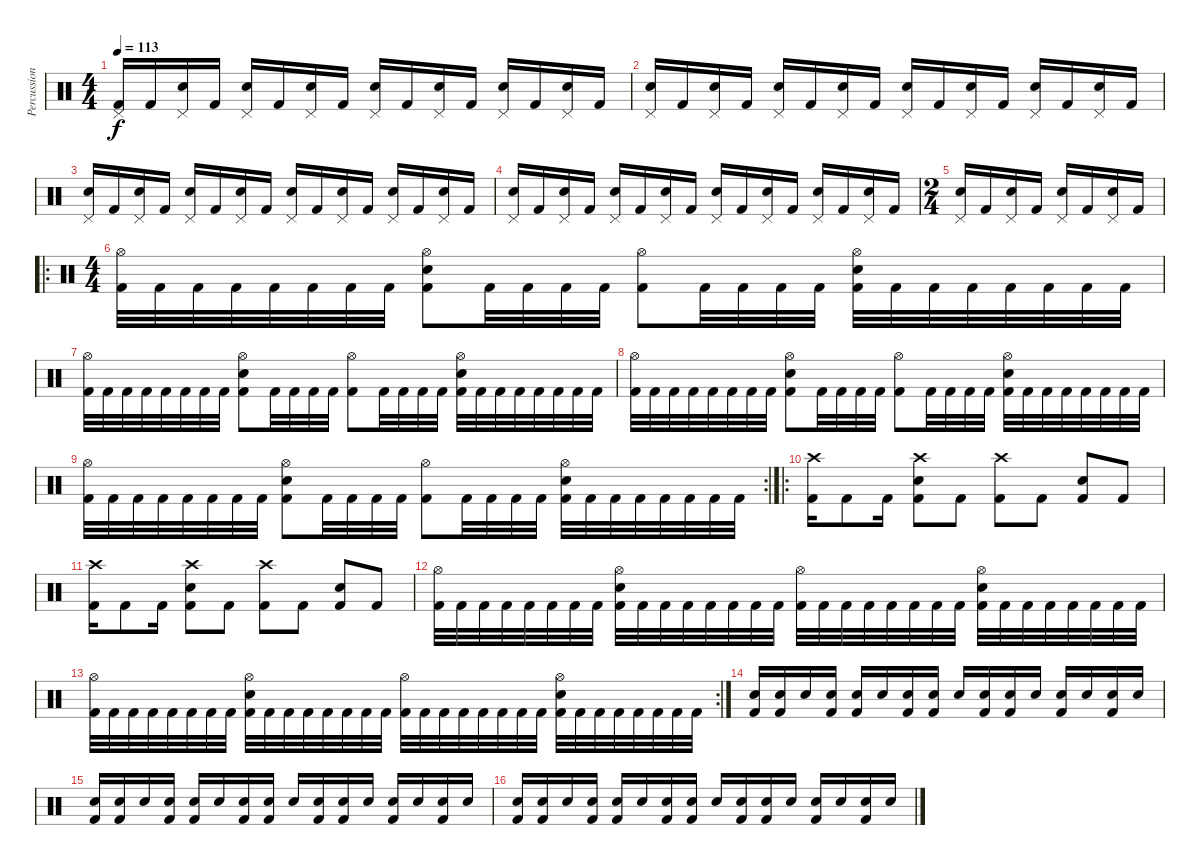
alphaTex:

\track ("Percussion" "Percussion") {instrument percussion}
\staff {score}
\articulation defaults
\ts (4 4)
\tempo 113
\clef neutral
\ks c
("Pedal Hi-Hat (hit)" "Kick (hit) 2").16{dy f} "Kick (hit) 2".16 ("Pedal Hi-Hat (hit)" "Electric Snare (hit)").16 "Kick (hit) 2".16 ("Pedal Hi-Hat (hit)" "Electric Snare (hit)").16 "Kick (hit) 2".16 ("Pedal Hi-Hat (hit)" "Electric Snare (hit)").16 "Kick (hit) 2".16 ("Pedal Hi-Hat (hit)" "Electric Snare (hit)").16 "Kick (hit) 2".16 ("Pedal Hi-Hat (hit)" "Electric Snare (hit)").16 "Kick (hit) 2".16 ("Pedal Hi-Hat (hit)" "Electric Snare (hit)").16 "Kick (hit) 2".16 ("Pedal Hi-Hat (hit)" "Electric Snare (hit)").16 "Kick (hit) 2".16 |
("Pedal Hi-Hat (hit)" "Electric Snare (hit)").16 "Kick (hit) 2".16 ("Pedal Hi-Hat (hit)" "Electric Snare (hit)").16 "Kick (hit) 2".16 ("Pedal Hi-Hat (hit)" "Electric Snare (hit)").16 "Kick (hit) 2".16 ("Pedal Hi-Hat (hit)" "Electric Snare (hit)").16 "Kick (hit) 2".16 ("Pedal Hi-Hat (hit)" "Electric Snare (hit)").16 "Kick (hit) 2".16 ("Pedal Hi-Hat (hit)" "Electric Snare (hit)").16 "Kick (hit) 2".16 ("Pedal Hi-Hat (hit)" "Electric Snare (hit)").16 "Kick (hit) 2".16 ("Pedal Hi-Hat (hit)" "Electric Snare (hit)").16 "Kick (hit) 2".16 |
("Pedal Hi-Hat (hit)" "Electric Snare (hit)").16 "Kick (hit) 2".16 ("Pedal Hi-Hat (hit)" "Electric Snare (hit)").16 "Kick (hit) 2".16 ("Pedal Hi-Hat (hit)" "Electric Snare (hit)").16 "Kick (hit) 2".16 ("Pedal Hi-Hat (hit)" "Electric Snare (hit)").16 "Kick (hit) 2".16 ("Pedal Hi-Hat (hit)" "Electric Snare (hit)").16 "Kick (hit) 2".16 ("Pedal Hi-Hat (hit)" "Electric Snare (hit)").16 "Kick (hit) 2".16 ("Pedal Hi-Hat (hit)" "Electric Snare (hit)").16 "Kick (hit) 2".16 ("Pedal Hi-Hat (hit)" "Electric Snare (hit)").16 "Kick (hit) 2".16 |
("Pedal Hi-Hat (hit)" "Electric Snare (hit)").16 "Kick (hit) 2".16 ("Pedal Hi-Hat (hit)" "Electric Snare (hit)").16 "Kick (hit) 2".16 ("Pedal Hi-Hat (hit)" "Electric Snare (hit)").16 "Kick (hit) 2".16 ("Pedal Hi-Hat (hit)" "Electric Snare (hit)").16 "Kick (hit) 2".16 ("Pedal Hi-Hat (hit)" "Electric Snare (hit)").16 "Kick (hit) 2".16 ("Pedal Hi-Hat (hit)" "Electric Snare (hit)").16 "Kick (hit) 2".16 ("Pedal Hi-Hat (hit)" "Electric Snare (hit)").16 "Kick (hit) 2".16 ("Pedal Hi-Hat (hit)" "Electric Snare (hit)").16 "Kick (hit) 2".16 |
\ts (2 4)
("Pedal Hi-Hat (hit)" "Electric Snare (hit)").16 "Kick (hit) 2".16 ("Pedal Hi-Hat (hit)" "Electric Snare (hit)").16 "Kick (hit) 2".16 ("Pedal Hi-Hat (hit)" "Electric Snare (hit)").16 "Kick (hit) 2".16 ("Pedal Hi-Hat (hit)" "Electric Snare (hit)").16 "Kick (hit) 2".16 |
\ro
\ts (4 4)
("Hi-Hat (open)" "Kick (hit) 2").32 "Kick (hit) 2".32 "Kick (hit) 2".32 "Kick (hit) 2".32 "Kick (hit) 2".32 "Kick (hit) 2".32 "Kick (hit) 2".32 "Kick (hit) 2".32 ("Hi-Hat (open)" "Electric Snare (hit)" "Kick (hit) 2").8 "Kick (hit) 2".32 "Kick (hit) 2".32 "Kick (hit) 2".32 "Kick (hit) 2".32 ("Hi-Hat (open)" "Kick (hit) 2").8 "Kick (hit) 2".32 "Kick (hit) 2".32 "Kick (hit) 2".32 "Kick (hit) 2".32 ("Hi-Hat (open)" "Electric Snare (hit)" "Kick (hit) 2").32 "Kick (hit) 2".32 "Kick (hit) 2".32 "Kick (hit) 2".32 "Kick (hit) 2".32 "Kick (hit) 2".32 "Kick (hit) 2".32 "Kick (hit) 2".32 |
("Hi-Hat (open)" "Kick (hit) 2").32 "Kick (hit) 2".32 "Kick (hit) 2".32 "Kick (hit) 2".32 "Kick (hit) 2".32 "Kick (hit) 2".32 "Kick (hit) 2".32 "Kick (hit) 2".32 ("Hi-Hat (open)" "Electric Snare (hit)" "Kick (hit) 2").8 "Kick (hit) 2".32 "Kick (hit) 2".32 "Kick (hit) 2".32 "Kick (hit) 2".32 ("Hi-Hat (open)" "Kick (hit) 2").8 "Kick (hit) 2".32 "Kick (hit) 2".32 "Kick (hit) 2".32 "Kick (hit) 2".32 ("Hi-Hat (open)" "Electric Snare (hit)" "Kick (hit) 2").32 "Kick (hit) 2".32 "Kick (hit) 2".32 "Kick (hit) 2".32 "Kick (hit) 2".32 "Kick (hit) 2".32 "Kick (hit) 2".32 "Kick (hit) 2".32 |
("Hi-Hat (open)" "Kick (hit) 2").32 "Kick (hit) 2".32 "Kick (hit) 2".32 "Kick (hit) 2".32 "Kick (hit) 2".32 "Kick (hit) 2".32 "Kick (hit) 2".32 "Kick (hit) 2".32 ("Hi-Hat (open)" "Electric Snare (hit)" "Kick (hit) 2").8 "Kick (hit) 2".32 "Kick (hit) 2".32 "Kick (hit) 2".32 "Kick (hit) 2".32 ("Hi-Hat (open)" "Kick (hit) 2").8 "Kick (hit) 2".32 "Kick (hit) 2".32 "Kick (hit) 2".32 "Kick (hit) 2".32 ("Hi-Hat (open)" "Electric Snare (hit)" "Kick (hit) 2").32 "Kick (hit) 2".32 "Kick (hit) 2".32 "Kick (hit) 2".32 "Kick (hit) 2".32 "Kick (hit) 2".32 "Kick (hit) 2".32 "Kick (hit) 2".32 |
\rc 2
("Hi-Hat (open)" "Kick (hit) 2").32 "Kick (hit) 2".32 "Kick (hit) 2".32 "Kick (hit) 2".32 "Kick (hit) 2".32 "Kick (hit) 2".32 "Kick (hit) 2".32 "Kick (hit) 2".32 ("Hi-Hat (open)" "Electric Snare (hit)" "Kick (hit) 2").8 "Kick (hit) 2".32 "Kick (hit) 2".32 "Kick (hit) 2".32 "Kick (hit) 2".32 ("Hi-Hat (open)" "Kick (hit) 2").8 "Kick (hit) 2".32 "Kick (hit) 2".32 "Kick (hit) 2".32 "Kick (hit) 2".32 ("Hi-Hat (open)" "Electric Snare (hit)" "Kick (hit) 2").32 "Kick (hit) 2".32 "Kick (hit) 2".32 "Kick (hit) 2".32 "Kick (hit) 2".32 "Kick (hit) 2".32 "Kick (hit) 2".32 "Kick (hit) 2".32 |
\ro
("Crash high (hit)" "Kick (hit) 2").16 "Kick (hit) 2".8 "Kick (hit) 2".16 ("Crash high (hit)" "Electric Snare (hit)" "Kick (hit) 2").8 "Kick (hit) 2".8 ("Crash high (hit)" "Kick (hit) 2").8 "Kick (hit) 2".8 ("Electric Snare (hit)" "Kick (hit) 2").8 "Kick (hit) 2".8 |
("Crash high (hit)" "Kick (hit) 2").16 "Kick (hit) 2".8 "Kick (hit) 2".16 ("Crash high (hit)" "Electric Snare (hit)" "Kick (hit) 2").8 "Kick (hit) 2".8 ("Crash high (hit)" "Kick (hit) 2").8 "Kick (hit) 2".8 ("Electric Snare (hit)" "Kick (hit) 2").8 "Kick (hit) 2".8 |
("Hi-Hat (open)" "Kick (hit) 2").32 "Kick (hit) 2".32 "Kick (hit) 2".32 "Kick (hit) 2".32 "Kick (hit) 2".32 "Kick (hit) 2".32 "Kick (hit) 2".32 "Kick (hit) 2".32 ("Hi-Hat (open)" "Electric Snare (hit)" "Kick (hit) 2").32 "Kick (hit) 2".32 "Kick (hit) 2".32 "Kick (hit) 2".32 "Kick (hit) 2".32 "Kick (hit) 2".32 "Kick (hit) 2".32 "Kick (hit) 2".32 ("Hi-Hat (open)" "Kick (hit) 2").32 "Kick (hit) 2".32 "Kick (hit) 2".32 "Kick (hit) 2".32 "Kick (hit) 2".32 "Kick (hit) 2".32 "Kick (hit) 2".32 "Kick (hit) 2".32 ("Hi-Hat (open)" "Electric Snare (hit)" "Kick (hit) 2").32 "Kick (hit) 2".32 "Kick (hit) 2".32 "Kick (hit) 2".32 "Kick (hit) 2".32 "Kick (hit) 2".32 "Kick (hit) 2".32 "Kick (hit) 2".32 |
\rc 2
("Hi-Hat (open)" "Kick (hit) 2").32 "Kick (hit) 2".32 "Kick (hit) 2".32 "Kick (hit) 2".32 "Kick (hit) 2".32 "Kick (hit) 2".32 "Kick (hit) 2".32 "Kick (hit) 2".32 ("Hi-Hat (open)" "Electric Snare (hit)" "Kick (hit) 2").32 "Kick (hit) 2".32 "Kick (hit) 2".32 "Kick (hit) 2".32 "Kick (hit) 2".32 "Kick (hit) 2".32 "Kick (hit) 2".32 "Kick (hit) 2".32 ("Hi-Hat (open)" "Kick (hit) 2").32 "Kick (hit) 2".32 "Kick (hit) 2".32 "Kick (hit) 2".32 "Kick (hit) 2".32 "Kick (hit) 2".32 "Kick (hit) 2".32 "Kick (hit) 2".32 ("Hi-Hat (open)" "Electric Snare (hit)" "Kick (hit) 2").32 "Kick (hit) 2".32 "Kick (hit) 2".32 "Kick (hit) 2".32 "Kick (hit) 2".32 "Kick (hit) 2".32 "Kick (hit) 2".32 "Kick (hit) 2".32 |
("Electric Snare (hit)" "Kick (hit) 2").16 ("Electric Snare (hit)" "Kick (hit) 2").16 "Electric Snare (hit)".16 ("Electric Snare (hit)" "Kick (hit) 2").16 ("Electric Snare (hit)" "Kick (hit) 2").16 "Electric Snare (hit)".16 ("Electric Snare (hit)" "Kick (hit) 2").16 ("Electric Snare (hit)" "Kick (hit) 2").16 "Electric Snare (hit)".16 ("Electric Snare (hit)" "Kick (hit) 2").16 ("Electric Snare (hit)" "Kick (hit) 2").16 "Electric Snare (hit)".16 ("Electric Snare (hit)" "Kick (hit) 2").16 "Electric Snare (hit)".16 ("Electric Snare (hit)" "Kick (hit) 2").16 "Electric Snare (hit)".16 |
("Electric Snare (hit)" "Kick (hit) 2").16 ("Electric Snare (hit)" "Kick (hit) 2").16 "Electric Snare (hit)".16 ("Electric Snare (hit)" "Kick (hit) 2").16 ("Electric Snare (hit)" "Kick (hit) 2").16 "Electric Snare (hit)".16 ("Electric Snare (hit)" "Kick (hit) 2").16 ("Electric Snare (hit)" "Kick (hit) 2").16 "Electric Snare (hit)".16 ("Electric Snare (hit)" "Kick (hit) 2").16 ("Electric Snare (hit)" "Kick (hit) 2").16 "Electric Snare (hit)".16 ("Electric Snare (hit)" "Kick (hit) 2").16 "Electric Snare (hit)".16 ("Electric Snare (hit)" "Kick (hit) 2").16 "Electric Snare (hit)".16 |
("Electric Snare (hit)" "Kick (hit) 2").16 ("Electric Snare (hit)" "Kick (hit) 2").16 "Electric Snare (hit)".16 ("Electric Snare (hit)" "Kick (hit) 2").16 ("Electric Snare (hit)" "Kick (hit) 2").16 "Electric Snare (hit)".16 ("Electric Snare (hit)" "Kick (hit) 2").16 ("Electric Snare (hit)" "Kick (hit) 2").16 "Electric Snare (hit)".16 ("Electric Snare (hit)" "Kick (hit) 2").16 ("Electric Snare (hit)" "Kick (hit) 2").16 "Electric Snare (hit)".16 ("Electric Snare (hit)" "Kick (hit) 2").16 "Electric Snare (hit)".16 ("Electric Snare (hit)" "Kick (hit) 2").16 "Electric Snare (hit)".16
